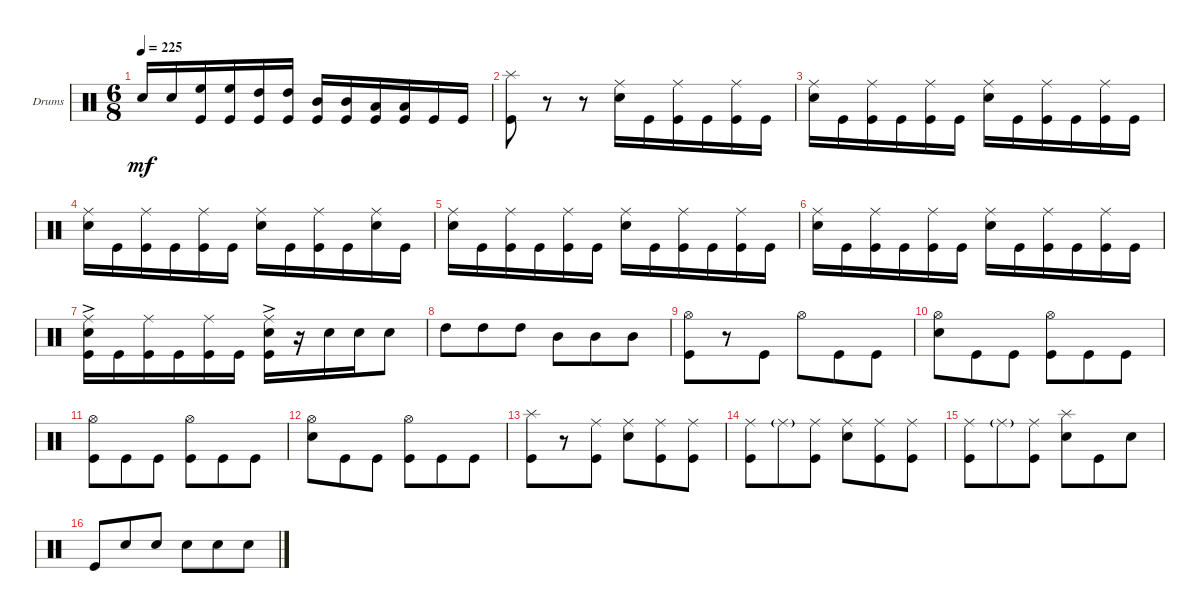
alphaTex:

\bracketExtendMode groupsimilarinstruments
\firstSystemTrackNameOrientation horizontal
\otherSystemsTrackNameOrientation horizontal
\track ("Drumkit" "Drums") {instrument percussion}
\staff {score}
\articulation defaults
\ts (6 8)
\tempo 225
\clef neutral
\ks c "Snare (hit) 2".16{dy mf} "Snare (hit) 2".16
("Kick (hit)" "High Floor Tom (hit)").16 ("Kick (hit)" "High Floor Tom (hit)").16 ("Kick (hit)" "High Tom (hit)").16 ("Kick (hit)" "High Tom (hit)").16 ("Kick (hit)" "Mid Tom (hit)").16 ("Kick (hit)" "Mid Tom (hit)").16 ("Kick (hit)" "Low Tom (hit)").16 ("Kick (hit)" "Low Tom (hit)").16 "Kick (hit)".16 "Kick (hit)".16 |
("Kick (hit)" "Splash (hit)").8 r.8 r.8 ("Snare (hit) 2" "Ride (middle)").16 "Kick (hit)".16 ("Kick (hit)" "Ride (middle)").16 "Kick (hit)".16 ("Kick (hit)" "Ride (middle)").16 "Kick (hit)".16 |
("Snare (hit) 2" "Ride (middle)").16 "Kick (hit)".16 ("Kick (hit)" "Ride (middle)").16 "Kick (hit)".16 ("Kick (hit)" "Ride (middle)").16 "Kick (hit)".16 ("Snare (hit) 2" "Ride (middle)").16 "Kick (hit)".16 ("Kick (hit)" "Ride (middle)").16 "Kick (hit)".16 ("Kick (hit)" "Ride (middle)").16 "Kick (hit)".16 |
("Snare (hit) 2" "Ride (middle)").16 "Kick (hit)".16 ("Kick (hit)" "Ride (middle)").16 "Kick (hit)".16 ("Kick (hit)" "Ride (middle)").16 "Kick (hit)".16 ("Snare (hit) 2" "Ride (middle)").16 "Kick (hit)".16 ("Kick (hit)" "Ride (middle)").16 "Kick (hit)".16 ("Ride (middle)" "Snare (hit) 2").16 "Kick (hit)".16 |
("Snare (hit) 2" "Ride (middle)").16 "Kick (hit)".16 ("Kick (hit)" "Ride (middle)").16 "Kick (hit)".16 ("Kick (hit)" "Ride (middle)").16 "Kick (hit)".16 ("Snare (hit) 2" "Ride (middle)").16 "Kick (hit)".16 ("Kick (hit)" "Ride (middle)").16 "Kick (hit)".16 ("Kick (hit)" "Ride (middle)").16 "Kick (hit)".16 |
("Snare (hit) 2" "Ride (middle)").16 "Kick (hit)".16 ("Kick (hit)" "Ride (middle)").16 "Kick (hit)".16 ("Kick (hit)" "Ride (middle)").16 "Kick (hit)".16 ("Snare (hit) 2" "Ride (middle)").16 "Kick (hit)".16 ("Kick (hit)" "Ride (middle)").16 "Kick (hit)".16 ("Kick (hit)" "Ride (middle)").16 "Kick (hit)".16 |
("Snare (hit) 2"{ac} "Kick (hit)" "Ride (middle)").16 "Kick (hit)".16 ("Kick (hit)" "Ride (middle)").16 "Kick (hit)".16 ("Kick (hit)" "Ride (middle)").16 "Kick (hit)".16 ("Snare (hit) 2"{ac} "Kick (hit)" "Ride (middle)").16 r.16 "Snare (hit) 2".16 "Snare (hit) 2".16 "Snare (hit) 2".8 |
"High Tom (hit)".8 "High Tom (hit)".8 "High Tom (hit)".8 "Mid Tom (hit)".8 "Mid Tom (hit)".8 "Mid Tom (hit)".8 |
("Kick (hit)" "Hi-Hat (open)").8 r.8 "Kick (hit)".8 "Hi-Hat (open)".8 "Kick (hit)".8 "Kick (hit)".8 |
("Snare (hit) 2" "Hi-Hat (open)").8 "Kick (hit)".8 "Kick (hit)".8 ("Kick (hit)" "Hi-Hat (open)").8 "Kick (hit)".8 "Kick (hit)".8 |
("Kick (hit)" "Hi-Hat (open)").8 "Kick (hit)".8 "Kick (hit)".8 ("Kick (hit)" "Hi-Hat (open)").8 "Kick (hit)".8 "Kick (hit)".8 |
("Snare (hit) 2" "Hi-Hat (open)").8 "Kick (hit)".8 "Kick (hit)".8 ("Kick (hit)" "Hi-Hat (open)").8 "Kick (hit)".8 "Kick (hit)".8 |
("Kick (hit)" "Splash (hit)").8 r.8 ("Kick (hit)" "Ride (middle)").8 ("Snare (hit) 2" "Ride (middle)").8 ("Kick (hit)" "Ride (middle)").8 ("Kick (hit)" "Ride (middle)").8 |
("Kick (hit)" "Ride (middle)").8 "Ride (middle)"{g}.8 ("Kick (hit)" "Ride (middle)").8 ("Snare (hit) 2" "Ride (middle)").8 ("Kick (hit)" "Ride (middle)").8 ("Kick (hit)" "Ride (middle)").8 |
("Kick (hit)" "Ride (middle)").8 "Ride (middle)"{g}.8 ("Kick (hit)" "Ride (middle)").8 ("Snare (hit) 2" "Splash (hit)").8 "Kick (hit)".8 "Snare (hit) 2".8 |
"Kick (hit)".8 "Snare (hit) 2".8 "Snare (hit) 2".8 "Snare (hit) 2".8 "Snare (hit) 2".8 "Snare (hit) 2".8
